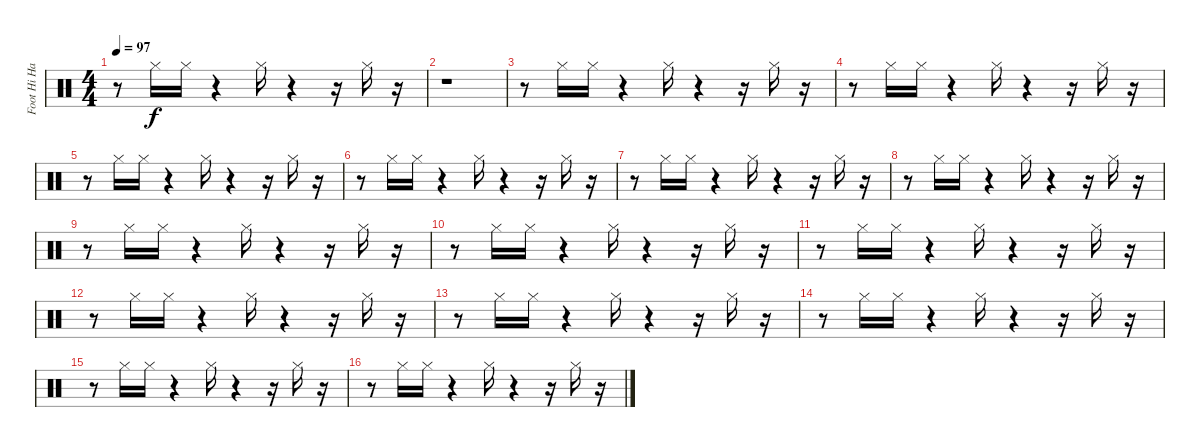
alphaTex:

\track ("Foot Hi Hat" "Foot Hi Ha") {instrument percussion}
\staff {score}
\articulation defaults
\ts (4 4)
\tempo 97
\clef neutral
\ks c
r.8{dy f} "Hi-Hat (closed)".16 "Hi-Hat (closed)".16 r.4 "Hi-Hat (closed)".16 r.4 r.16 "Hi-Hat (closed)".16 r.16 |
r.1 |
r.8 "Hi-Hat (closed)".16 "Hi-Hat (closed)".16 r.4 "Hi-Hat (closed)".16 r.4 r.16 "Hi-Hat (closed)".16 r.16 |
r.8 "Hi-Hat (closed)".16 "Hi-Hat (closed)".16 r.4 "Hi-Hat (closed)".16 r.4 r.16 "Hi-Hat (closed)".16 r.16 |
r.8 "Hi-Hat (closed)".16 "Hi-Hat (closed)".16 r.4 "Hi-Hat (closed)".16 r.4 r.16 "Hi-Hat (closed)".16 r.16 |
r.8 "Hi-Hat (closed)".16 "Hi-Hat (closed)".16 r.4 "Hi-Hat (closed)".16 r.4 r.16 "Hi-Hat (closed)".16 r.16 |
r.8 "Hi-Hat (closed)".16 "Hi-Hat (closed)".16 r.4 "Hi-Hat (closed)".16 r.4 r.16 "Hi-Hat (closed)".16 r.16 |
r.8 "Hi-Hat (closed)".16 "Hi-Hat (closed)".16 r.4 "Hi-Hat (closed)".16 r.4 r.16 "Hi-Hat (closed)".16 r.16 |
r.8 "Hi-Hat (closed)".16 "Hi-Hat (closed)".16 r.4 "Hi-Hat (closed)".16 r.4 r.16 "Hi-Hat (closed)".16 r.16 |
r.8 "Hi-Hat (closed)".16 "Hi-Hat (closed)".16 r.4 "Hi-Hat (closed)".16 r.4 r.16 "Hi-Hat (closed)".16 r.16 |
r.8 "Hi-Hat (closed)".16 "Hi-Hat (closed)".16 r.4 "Hi-Hat (closed)".16 r.4 r.16 "Hi-Hat (closed)".16 r.16 |
r.8 "Hi-Hat (closed)".16 "Hi-Hat (closed)".16 r.4 "Hi-Hat (closed)".16 r.4 r.16 "Hi-Hat (closed)".16 r.16 |
r.8 "Hi-Hat (closed)".16 "Hi-Hat (closed)".16 r.4 "Hi-Hat (closed)".16 r.4 r.16 "Hi-Hat (closed)".16 r.16 |
r.8 "Hi-Hat (closed)".16 "Hi-Hat (closed)".16 r.4 "Hi-Hat (closed)".16 r.4 r.16 "Hi-Hat (closed)".16 r.16 |
r.8 "Hi-Hat (closed)".16 "Hi-Hat (closed)".16 r.4 "Hi-Hat (closed)".16 r.4 r.16 "Hi-Hat (closed)".16 r.16 |
r.8 "Hi-Hat (closed)".16 "Hi-Hat (closed)".16 r.4 "Hi-Hat (closed)".16 r.4 r.16 "Hi-Hat (closed)".16 r.16
